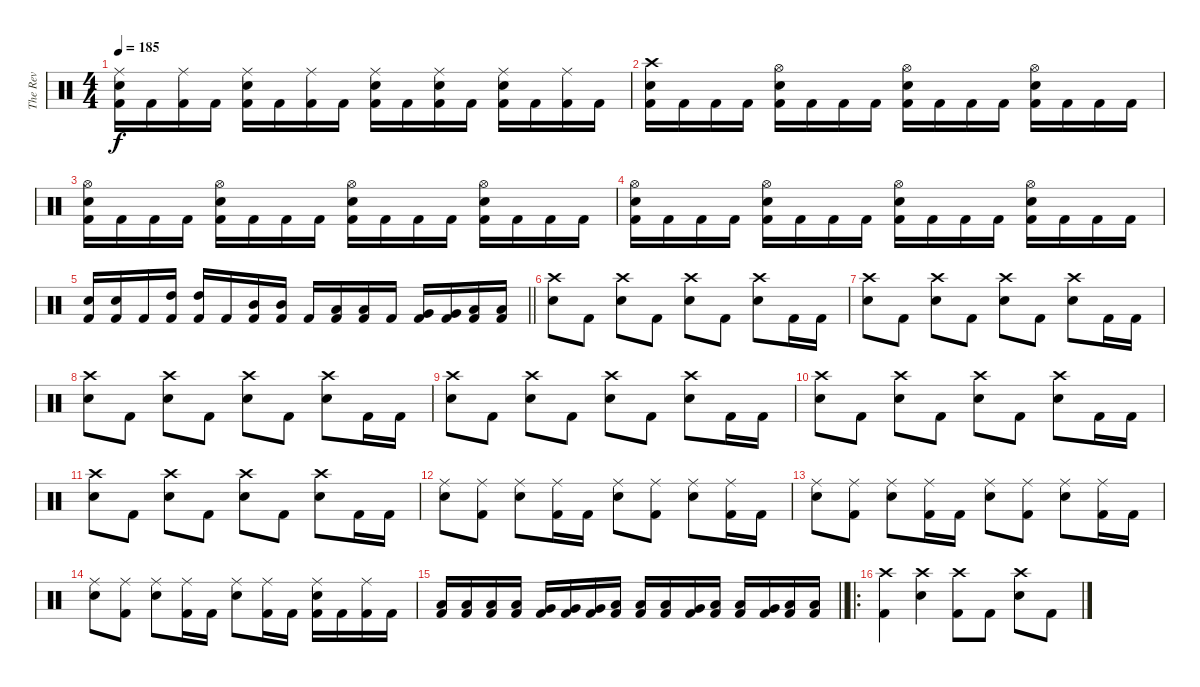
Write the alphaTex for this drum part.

\track ("The Rev" "The Rev") {instrument percussion}
\staff {score}
\articulation defaults
\ts (4 4)
\tempo 185
\clef neutral
\ks c
("Ride (middle)" "Electric Snare (hit)" "Kick (hit) 2").16{dy f} "Kick (hit) 2".16 ("Ride (middle)" "Kick (hit) 2").16 "Kick (hit) 2".16 ("Ride (middle)" "Electric Snare (hit)" "Kick (hit) 2").16 "Kick (hit) 2".16 ("Ride (middle)" "Kick (hit) 2").16 "Kick (hit) 2".16 ("Ride (middle)" "Electric Snare (hit)" "Kick (hit) 2").16 "Kick (hit) 2".16 ("Ride (middle)" "Electric Snare (hit)" "Kick (hit) 2").16 "Kick (hit) 2".16 ("Ride (middle)" "Electric Snare (hit)" "Kick (hit) 2").16 "Kick (hit) 2".16 ("Ride (middle)" "Kick (hit) 2").16 "Kick (hit) 2".16 |
("Crash high (hit)" "Electric Snare (hit)" "Kick (hit) 2").16 "Kick (hit) 2".16 "Kick (hit) 2".16 "Kick (hit) 2".16 ("Hi-Hat (open)" "Electric Snare (hit)" "Kick (hit) 2").16 "Kick (hit) 2".16 "Kick (hit) 2".16 "Kick (hit) 2".16 ("Hi-Hat (open)" "Electric Snare (hit)" "Kick (hit) 2").16 "Kick (hit) 2".16 "Kick (hit) 2".16 "Kick (hit) 2".16 ("Hi-Hat (open)" "Electric Snare (hit)" "Kick (hit) 2").16 "Kick (hit) 2".16 "Kick (hit) 2".16 "Kick (hit) 2".16 |
("Hi-Hat (open)" "Electric Snare (hit)" "Kick (hit) 2").16 "Kick (hit) 2".16 "Kick (hit) 2".16 "Kick (hit) 2".16 ("Hi-Hat (open)" "Electric Snare (hit)" "Kick (hit) 2").16 "Kick (hit) 2".16 "Kick (hit) 2".16 "Kick (hit) 2".16 ("Hi-Hat (open)" "Electric Snare (hit)" "Kick (hit) 2").16 "Kick (hit) 2".16 "Kick (hit) 2".16 "Kick (hit) 2".16 ("Hi-Hat (open)" "Electric Snare (hit)" "Kick (hit) 2").16 "Kick (hit) 2".16 "Kick (hit) 2".16 "Kick (hit) 2".16 |
("Hi-Hat (open)" "Electric Snare (hit)" "Kick (hit) 2").16 "Kick (hit) 2".16 "Kick (hit) 2".16 "Kick (hit) 2".16 ("Hi-Hat (open)" "Electric Snare (hit)" "Kick (hit) 2").16 "Kick (hit) 2".16 "Kick (hit) 2".16 "Kick (hit) 2".16 ("Hi-Hat (open)" "Electric Snare (hit)" "Kick (hit) 2").16 "Kick (hit) 2".16 "Kick (hit) 2".16 "Kick (hit) 2".16 ("Hi-Hat (open)" "Electric Snare (hit)" "Kick (hit) 2").16 "Kick (hit) 2".16 "Kick (hit) 2".16 "Kick (hit) 2".16 |
\barLineRight lightlight
("Electric Snare (hit)" "Kick (hit) 2").16 ("Electric Snare (hit)" "Kick (hit) 2").16 "Kick (hit) 2".16 ("High Tom (hit)" "Kick (hit) 2").16 ("High Tom (hit)" "Kick (hit) 2").16 "Kick (hit) 2".16 ("Mid Tom (hit)" "Kick (hit) 2").16 ("Mid Tom (hit)" "Kick (hit) 2").16 "Kick (hit) 2".16 ("Low Tom (hit)" "Kick (hit) 2").16 ("Low Tom (hit)" "Kick (hit) 2").16 "Kick (hit) 2".16 ("Very Low Tom (hit)" "Kick (hit) 2").16 ("Very Low Tom (hit)" "Kick (hit) 2").16 ("Low Tom (hit)" "Kick (hit) 2").16 ("Low Tom (hit)" "Kick (hit) 2").16 |
("Crash high (hit)" "Electric Snare (hit)").8 "Kick (hit) 2".8 ("Crash high (hit)" "Electric Snare (hit)").8 "Kick (hit) 2".8 ("Crash high (hit)" "Electric Snare (hit)").8 "Kick (hit) 2".8 ("Crash high (hit)" "Electric Snare (hit)").8 "Kick (hit) 2".16 "Kick (hit) 2".16 |
("Crash high (hit)" "Electric Snare (hit)").8 "Kick (hit) 2".8 ("Crash high (hit)" "Electric Snare (hit)").8 "Kick (hit) 2".8 ("Crash high (hit)" "Electric Snare (hit)").8 "Kick (hit) 2".8 ("Crash high (hit)" "Electric Snare (hit)").8 "Kick (hit) 2".16 "Kick (hit) 2".16 |
("Crash high (hit)" "Electric Snare (hit)").8 "Kick (hit) 2".8 ("Crash high (hit)" "Electric Snare (hit)").8 "Kick (hit) 2".8 ("Crash high (hit)" "Electric Snare (hit)").8 "Kick (hit) 2".8 ("Crash high (hit)" "Electric Snare (hit)").8 "Kick (hit) 2".16 "Kick (hit) 2".16 |
("Crash high (hit)" "Electric Snare (hit)").8 "Kick (hit) 2".8 ("Crash high (hit)" "Electric Snare (hit)").8 "Kick (hit) 2".8 ("Crash high (hit)" "Electric Snare (hit)").8 "Kick (hit) 2".8 ("Crash high (hit)" "Electric Snare (hit)").8 "Kick (hit) 2".16 "Kick (hit) 2".16 |
("Crash high (hit)" "Electric Snare (hit)").8 "Kick (hit) 2".8 ("Crash high (hit)" "Electric Snare (hit)").8 "Kick (hit) 2".8 ("Crash high (hit)" "Electric Snare (hit)").8 "Kick (hit) 2".8 ("Crash high (hit)" "Electric Snare (hit)").8 "Kick (hit) 2".16 "Kick (hit) 2".16 |
("Crash high (hit)" "Electric Snare (hit)").8 "Kick (hit) 2".8 ("Crash high (hit)" "Electric Snare (hit)").8 "Kick (hit) 2".8 ("Crash high (hit)" "Electric Snare (hit)").8 "Kick (hit) 2".8 ("Crash high (hit)" "Electric Snare (hit)").8 "Kick (hit) 2".16 "Kick (hit) 2".16 |
("Ride (middle)" "Electric Snare (hit)").8 ("Ride (middle)" "Kick (hit) 2").8 ("Ride (middle)" "Electric Snare (hit)").8 ("Ride (middle)" "Kick (hit) 2").16 "Kick (hit) 2".16 ("Ride (middle)" "Electric Snare (hit)").8 ("Ride (middle)" "Kick (hit) 2").8 ("Ride (middle)" "Electric Snare (hit)").8 ("Ride (middle)" "Kick (hit) 2").16 "Kick (hit) 2".16 |
("Ride (middle)" "Electric Snare (hit)").8 ("Ride (middle)" "Kick (hit) 2").8 ("Ride (middle)" "Electric Snare (hit)").8 ("Ride (middle)" "Kick (hit) 2").16 "Kick (hit) 2".16 ("Ride (middle)" "Electric Snare (hit)").8 ("Ride (middle)" "Kick (hit) 2").8 ("Ride (middle)" "Electric Snare (hit)").8 ("Ride (middle)" "Kick (hit) 2").16 "Kick (hit) 2".16 |
("Ride (middle)" "Electric Snare (hit)").8 ("Ride (middle)" "Kick (hit) 2").8 ("Ride (middle)" "Electric Snare (hit)").8 ("Ride (middle)" "Kick (hit) 2").16 "Kick (hit) 2".16 ("Ride (middle)" "Electric Snare (hit)").8 ("Ride (middle)" "Kick (hit) 2").16 "Kick (hit) 2".16 ("Ride (middle)" "Electric Snare (hit)" "Kick (hit) 2").16 "Kick (hit) 2".16 ("Ride (middle)" "Kick (hit) 2").16 "Kick (hit) 2".16 |
\barLineRight lightlight
("Low Tom (hit)" "Kick (hit) 2").16 ("Low Tom (hit)" "Kick (hit) 2").16 ("Low Tom (hit)" "Kick (hit) 2").16 ("Low Floor Tom (hit)" "Kick (hit) 2").16 ("Very Low Tom (hit)" "Kick (hit) 2").16 ("Very Low Tom (hit)" "Kick (hit) 2").16 ("Very Low Tom (hit)" "Kick (hit) 2").16 ("Low Tom (hit)" "Kick (hit) 2").16 ("Low Floor Tom (hit)" "Kick (hit) 2").16 ("Low Floor Tom (hit)" "Kick (hit) 2").16 ("Very Low Tom (hit)" "Kick (hit) 2").16 ("Low Tom (hit)" "Kick (hit) 2").16 ("Low Floor Tom (hit)" "Kick (hit) 2").16 ("Very Low Tom (hit)" "Kick (hit) 2").16 ("Low Tom (hit)" "Kick (hit) 2").16 ("Low Floor Tom (hit)" "Kick (hit) 2").16 |
\ro
("Crash high (hit)" "Kick (hit) 2").4 ("Crash high (hit)" "Electric Snare (hit)").4 ("Crash high (hit)" "Kick (hit) 2").8 "Kick (hit) 2".8 ("Crash high (hit)" "Electric Snare (hit)").8 "Kick (hit) 2".8
